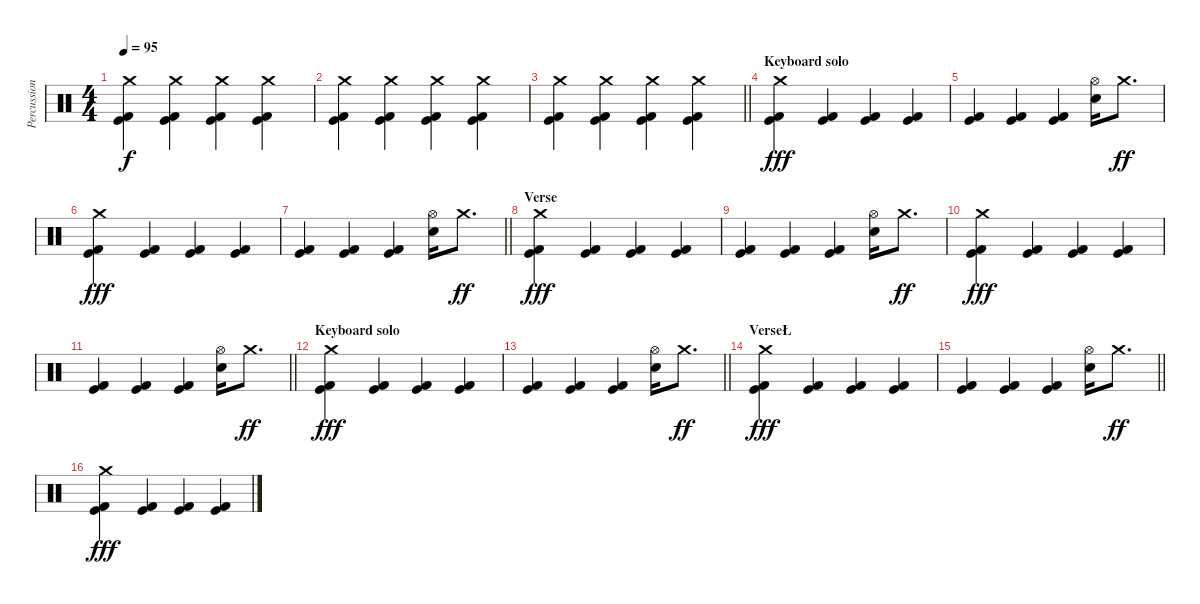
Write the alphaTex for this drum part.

\track ("Percussion" "Percussion") {instrument percussion}
\staff {score}
\articulation defaults
\ts (4 4)
\tempo 95
\clef neutral
\ks c
("Crash medium (hit)" "Kick (hit)" "Kick (hit) 2").4{dy f} ("Crash medium (hit)" "Kick (hit)" "Kick (hit) 2").4 ("Crash medium (hit)" "Kick (hit)" "Kick (hit) 2").4 ("Crash medium (hit)" "Kick (hit)" "Kick (hit) 2").4 |
("Crash medium (hit)" "Kick (hit)" "Kick (hit) 2").4 ("Crash medium (hit)" "Kick (hit)" "Kick (hit) 2").4 ("Crash medium (hit)" "Kick (hit)" "Kick (hit) 2").4 ("Crash medium (hit)" "Kick (hit)" "Kick (hit) 2").4 |
\barLineRight lightlight
("Crash medium (hit)" "Kick (hit)" "Kick (hit) 2").4 ("Crash medium (hit)" "Kick (hit)" "Kick (hit) 2").4 ("Crash medium (hit)" "Kick (hit)" "Kick (hit) 2").4 ("Crash medium (hit)" "Kick (hit)" "Kick (hit) 2").4 |
\section ("" "Keyboard solo")
("Crash medium (hit)" "Kick (hit)" "Kick (hit) 2").4{dy fff} ("Kick (hit)" "Kick (hit) 2").4 ("Kick (hit)" "Kick (hit) 2").4 ("Kick (hit)" "Kick (hit) 2").4 |
("Kick (hit)" "Kick (hit) 2").4 ("Kick (hit)" "Kick (hit) 2").4 ("Kick (hit)" "Kick (hit) 2").4 ("Hi-Hat (open)" "Snare (hit) 2").16 "Crash medium (hit)".8{d dy ff} |
("Crash medium (hit)" "Kick (hit)" "Kick (hit) 2").4{dy fff} ("Kick (hit)" "Kick (hit) 2").4 ("Kick (hit)" "Kick (hit) 2").4 ("Kick (hit)" "Kick (hit) 2").4 |
\barLineRight lightlight
("Kick (hit)" "Kick (hit) 2").4 ("Kick (hit)" "Kick (hit) 2").4 ("Kick (hit)" "Kick (hit) 2").4 ("Hi-Hat (open)" "Snare (hit) 2").16 "Crash medium (hit)".8{d dy ff} |
\section ("" "Verse")
("Crash medium (hit)" "Kick (hit)" "Kick (hit) 2").4{dy fff} ("Kick (hit)" "Kick (hit) 2").4 ("Kick (hit)" "Kick (hit) 2").4 ("Kick (hit)" "Kick (hit) 2").4 |
("Kick (hit)" "Kick (hit) 2").4 ("Kick (hit)" "Kick (hit) 2").4 ("Kick (hit)" "Kick (hit) 2").4 ("Hi-Hat (open)" "Snare (hit) 2").16 "Crash medium (hit)".8{d dy ff} |
("Crash medium (hit)" "Kick (hit)" "Kick (hit) 2").4{dy fff} ("Kick (hit)" "Kick (hit) 2").4 ("Kick (hit)" "Kick (hit) 2").4 ("Kick (hit)" "Kick (hit) 2").4 |
\barLineRight lightlight
("Kick (hit)" "Kick (hit) 2").4 ("Kick (hit)" "Kick (hit) 2").4 ("Kick (hit)" "Kick (hit) 2").4 ("Hi-Hat (open)" "Snare (hit) 2").16 "Crash medium (hit)".8{d dy ff} |
\section ("" "Keyboard solo")
("Crash medium (hit)" "Kick (hit)" "Kick (hit) 2").4{dy fff} ("Kick (hit)" "Kick (hit) 2").4 ("Kick (hit)" "Kick (hit) 2").4 ("Kick (hit)" "Kick (hit) 2").4 |
\barLineRight lightlight
("Kick (hit)" "Kick (hit) 2").4 ("Kick (hit)" "Kick (hit) 2").4 ("Kick (hit)" "Kick (hit) 2").4 ("Hi-Hat (open)" "Snare (hit) 2").16 "Crash medium (hit)".8{d dy ff} |
\section ("" "VerseŁ")
("Crash medium (hit)" "Kick (hit)" "Kick (hit) 2").4{dy fff} ("Kick (hit)" "Kick (hit) 2").4 ("Kick (hit)" "Kick (hit) 2").4 ("Kick (hit)" "Kick (hit) 2").4 |
\barLineRight lightlight
("Kick (hit)" "Kick (hit) 2").4 ("Kick (hit)" "Kick (hit) 2").4 ("Kick (hit)" "Kick (hit) 2").4 ("Hi-Hat (open)" "Snare (hit) 2").16 "Crash medium (hit)".8{d dy ff} |
("Crash medium (hit)" "Kick (hit)" "Kick (hit) 2").4{dy fff} ("Kick (hit)" "Kick (hit) 2").4 ("Kick (hit)" "Kick (hit) 2").4 ("Kick (hit)" "Kick (hit) 2").4
